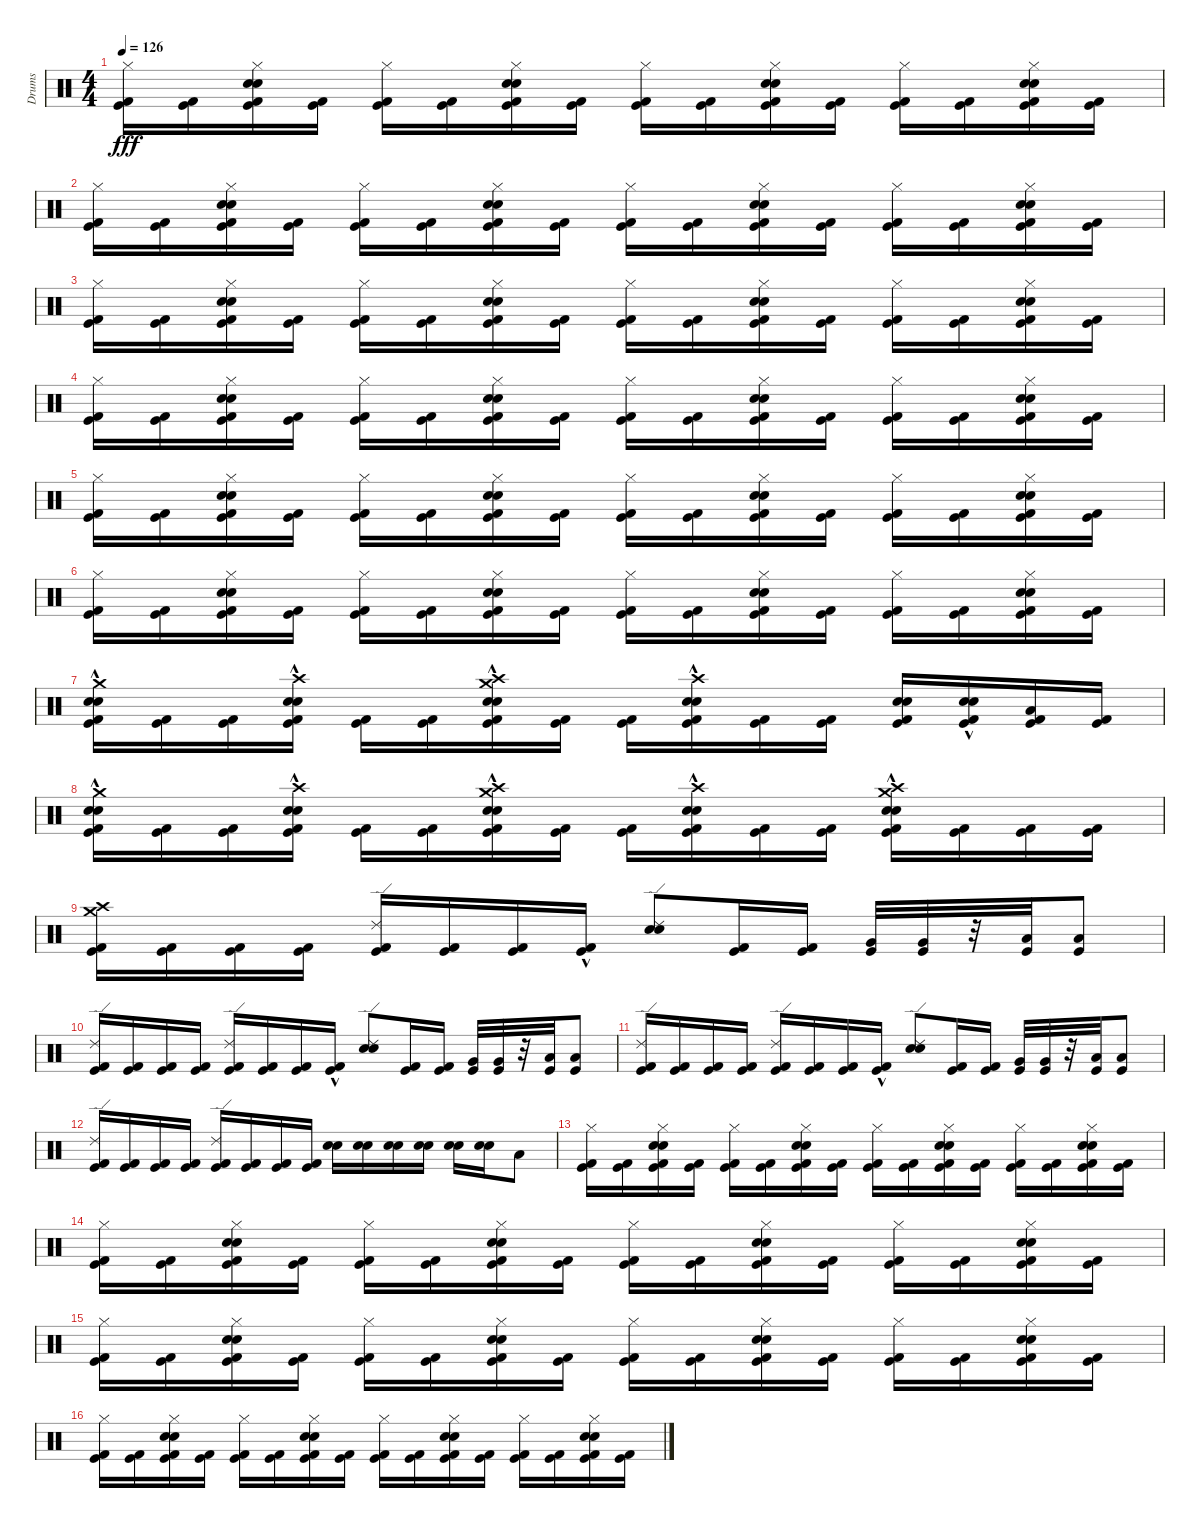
\track ("Drums" "Drums") {instrument percussion}
\staff {score}
\articulation defaults
\ts (4 4)
\tempo 126
\clef neutral
\ks c
("Hi-Hat (closed)" "Kick (hit) 2" "Kick (hit)").16{dy fff} ("Kick (hit) 2" "Kick (hit)").16 ("Hi-Hat (closed)" "Electric Snare (hit)" "Kick (hit) 2" "Snare (hit) 2" "Kick (hit)").16 ("Kick (hit) 2" "Kick (hit)").16 ("Hi-Hat (closed)" "Kick (hit) 2" "Kick (hit)").16 ("Kick (hit) 2" "Kick (hit)").16 ("Hi-Hat (closed)" "Electric Snare (hit)" "Snare (hit) 2" "Kick (hit) 2" "Kick (hit)").16 ("Kick (hit) 2" "Kick (hit)").16 ("Hi-Hat (closed)" "Kick (hit) 2" "Kick (hit)").16 ("Kick (hit) 2" "Kick (hit)").16 ("Hi-Hat (closed)" "Electric Snare (hit)" "Kick (hit) 2" "Snare (hit) 2" "Kick (hit)").16 ("Kick (hit) 2" "Kick (hit)").16 ("Hi-Hat (closed)" "Kick (hit) 2" "Kick (hit)").16 ("Kick (hit) 2" "Kick (hit)").16 ("Hi-Hat (closed)" "Electric Snare (hit)" "Snare (hit) 2" "Kick (hit) 2" "Kick (hit)").16 ("Kick (hit) 2" "Kick (hit)").16 |
("Hi-Hat (closed)" "Kick (hit) 2" "Kick (hit)").16 ("Kick (hit) 2" "Kick (hit)").16 ("Hi-Hat (closed)" "Electric Snare (hit)" "Kick (hit) 2" "Snare (hit) 2" "Kick (hit)").16 ("Kick (hit) 2" "Kick (hit)").16 ("Hi-Hat (closed)" "Kick (hit) 2" "Kick (hit)").16 ("Kick (hit) 2" "Kick (hit)").16 ("Hi-Hat (closed)" "Electric Snare (hit)" "Snare (hit) 2" "Kick (hit) 2" "Kick (hit)").16 ("Kick (hit) 2" "Kick (hit)").16 ("Hi-Hat (closed)" "Kick (hit) 2" "Kick (hit)").16 ("Kick (hit) 2" "Kick (hit)").16 ("Hi-Hat (closed)" "Electric Snare (hit)" "Kick (hit) 2" "Snare (hit) 2" "Kick (hit)").16 ("Kick (hit) 2" "Kick (hit)").16 ("Hi-Hat (closed)" "Kick (hit) 2" "Kick (hit)").16 ("Kick (hit) 2" "Kick (hit)").16 ("Hi-Hat (closed)" "Electric Snare (hit)" "Snare (hit) 2" "Kick (hit) 2" "Kick (hit)").16 ("Kick (hit) 2" "Kick (hit)").16 |
("Hi-Hat (closed)" "Kick (hit) 2" "Kick (hit)").16 ("Kick (hit) 2" "Kick (hit)").16 ("Hi-Hat (closed)" "Electric Snare (hit)" "Kick (hit) 2" "Snare (hit) 2" "Kick (hit)").16 ("Kick (hit) 2" "Kick (hit)").16 ("Hi-Hat (closed)" "Kick (hit) 2" "Kick (hit)").16 ("Kick (hit) 2" "Kick (hit)").16 ("Hi-Hat (closed)" "Electric Snare (hit)" "Snare (hit) 2" "Kick (hit) 2" "Kick (hit)").16 ("Kick (hit) 2" "Kick (hit)").16 ("Hi-Hat (closed)" "Kick (hit) 2" "Kick (hit)").16 ("Kick (hit) 2" "Kick (hit)").16 ("Hi-Hat (closed)" "Electric Snare (hit)" "Kick (hit) 2" "Snare (hit) 2" "Kick (hit)").16 ("Kick (hit) 2" "Kick (hit)").16 ("Hi-Hat (closed)" "Kick (hit) 2" "Kick (hit)").16 ("Kick (hit) 2" "Kick (hit)").16 ("Hi-Hat (closed)" "Electric Snare (hit)" "Snare (hit) 2" "Kick (hit) 2" "Kick (hit)").16 ("Kick (hit) 2" "Kick (hit)").16 |
("Hi-Hat (closed)" "Kick (hit) 2" "Kick (hit)").16 ("Kick (hit) 2" "Kick (hit)").16 ("Hi-Hat (closed)" "Electric Snare (hit)" "Kick (hit) 2" "Snare (hit) 2" "Kick (hit)").16 ("Kick (hit) 2" "Kick (hit)").16 ("Hi-Hat (closed)" "Kick (hit) 2" "Kick (hit)").16 ("Kick (hit) 2" "Kick (hit)").16 ("Hi-Hat (closed)" "Electric Snare (hit)" "Snare (hit) 2" "Kick (hit) 2" "Kick (hit)").16 ("Kick (hit) 2" "Kick (hit)").16 ("Hi-Hat (closed)" "Kick (hit) 2" "Kick (hit)").16 ("Kick (hit) 2" "Kick (hit)").16 ("Hi-Hat (closed)" "Electric Snare (hit)" "Kick (hit) 2" "Snare (hit) 2" "Kick (hit)").16 ("Kick (hit) 2" "Kick (hit)").16 ("Hi-Hat (closed)" "Kick (hit) 2" "Kick (hit)").16 ("Kick (hit) 2" "Kick (hit)").16 ("Hi-Hat (closed)" "Electric Snare (hit)" "Snare (hit) 2" "Kick (hit) 2" "Kick (hit)").16 ("Kick (hit) 2" "Kick (hit)").16 |
("Hi-Hat (closed)" "Kick (hit) 2" "Kick (hit)").16 ("Kick (hit) 2" "Kick (hit)").16 ("Hi-Hat (closed)" "Electric Snare (hit)" "Kick (hit) 2" "Snare (hit) 2" "Kick (hit)").16 ("Kick (hit) 2" "Kick (hit)").16 ("Hi-Hat (closed)" "Kick (hit) 2" "Kick (hit)").16 ("Kick (hit) 2" "Kick (hit)").16 ("Hi-Hat (closed)" "Electric Snare (hit)" "Snare (hit) 2" "Kick (hit) 2" "Kick (hit)").16 ("Kick (hit) 2" "Kick (hit)").16 ("Hi-Hat (closed)" "Kick (hit) 2" "Kick (hit)").16 ("Kick (hit) 2" "Kick (hit)").16 ("Hi-Hat (closed)" "Electric Snare (hit)" "Kick (hit) 2" "Snare (hit) 2" "Kick (hit)").16 ("Kick (hit) 2" "Kick (hit)").16 ("Hi-Hat (closed)" "Kick (hit) 2" "Kick (hit)").16 ("Kick (hit) 2" "Kick (hit)").16 ("Hi-Hat (closed)" "Electric Snare (hit)" "Snare (hit) 2" "Kick (hit) 2" "Kick (hit)").16 ("Kick (hit) 2" "Kick (hit)").16 |
("Hi-Hat (closed)" "Kick (hit) 2" "Kick (hit)").16 ("Kick (hit) 2" "Kick (hit)").16 ("Hi-Hat (closed)" "Electric Snare (hit)" "Kick (hit) 2" "Snare (hit) 2" "Kick (hit)").16 ("Kick (hit) 2" "Kick (hit)").16 ("Hi-Hat (closed)" "Kick (hit) 2" "Kick (hit)").16 ("Kick (hit) 2" "Kick (hit)").16 ("Hi-Hat (closed)" "Electric Snare (hit)" "Snare (hit) 2" "Kick (hit) 2" "Kick (hit)").16 ("Kick (hit) 2" "Kick (hit)").16 ("Hi-Hat (closed)" "Kick (hit) 2" "Kick (hit)").16 ("Kick (hit) 2" "Kick (hit)").16 ("Hi-Hat (closed)" "Electric Snare (hit)" "Kick (hit) 2" "Snare (hit) 2" "Kick (hit)").16 ("Kick (hit) 2" "Kick (hit)").16 ("Hi-Hat (closed)" "Kick (hit) 2" "Kick (hit)").16 ("Kick (hit) 2" "Kick (hit)").16 ("Hi-Hat (closed)" "Electric Snare (hit)" "Snare (hit) 2" "Kick (hit) 2" "Kick (hit)").16 ("Kick (hit) 2" "Kick (hit)").16 |
("Crash medium (hit)"{hac} "Electric Snare (hit)"{hac} "Snare (hit) 2"{hac} "Kick (hit) 2" "Kick (hit)").16 ("Kick (hit) 2" "Kick (hit)").16 ("Kick (hit) 2" "Kick (hit)").16 ("Crash high (hit)"{hac} "Electric Snare (hit)"{hac} "Snare (hit) 2"{hac} "Kick (hit) 2" "Kick (hit)").16 ("Kick (hit) 2" "Kick (hit)").16 ("Kick (hit) 2" "Kick (hit)").16 ("Crash high (hit)"{hac} "Crash medium (hit)" "Electric Snare (hit)"{hac} "Snare (hit) 2"{hac} "Kick (hit) 2" "Kick (hit)").16 ("Kick (hit) 2" "Kick (hit)").16 ("Kick (hit) 2" "Kick (hit)").16 ("Crash high (hit)" "Electric Snare (hit)"{hac} "Snare (hit) 2"{hac} "Kick (hit) 2" "Kick (hit)").16 ("Kick (hit) 2" "Kick (hit)").16 ("Kick (hit) 2" "Kick (hit)").16 ("Electric Snare (hit)" "Snare (hit) 2" "Kick (hit) 2" "Kick (hit)").16 ("Electric Snare (hit)"{hac} "Snare (hit) 2"{hac} "Kick (hit) 2" "Kick (hit)").16 ("Low Floor Tom (hit)" "Kick (hit) 2" "Kick (hit)").16 ("Kick (hit) 2" "Kick (hit)").16 |
("Crash medium (hit)"{hac} "Electric Snare (hit)"{hac} "Snare (hit) 2"{hac} "Kick (hit) 2" "Kick (hit)").16 ("Kick (hit) 2" "Kick (hit)").16 ("Kick (hit) 2" "Kick (hit)").16 ("Crash high (hit)"{hac} "Electric Snare (hit)"{hac} "Snare (hit) 2"{hac} "Kick (hit) 2" "Kick (hit)").16 ("Kick (hit) 2" "Kick (hit)").16 ("Kick (hit) 2" "Kick (hit)").16 ("Crash high (hit)"{hac} "Crash medium (hit)"{hac} "Electric Snare (hit)"{hac} "Snare (hit) 2"{hac} "Kick (hit) 2" "Kick (hit)").16 ("Kick (hit) 2" "Kick (hit)").16 ("Kick (hit) 2" "Kick (hit)").16 ("Crash high (hit)"{hac} "Electric Snare (hit)"{hac} "Snare (hit) 2"{hac} "Kick (hit) 2" "Kick (hit)").16 ("Kick (hit) 2" "Kick (hit)").16 ("Kick (hit) 2" "Kick (hit)").16 ("Crash high (hit)" "Crash medium (hit)" "Electric Snare (hit)"{hac} "Snare (hit) 2"{hac} "Kick (hit) 2" "Kick (hit)").16 ("Kick (hit) 2" "Kick (hit)").16 ("Kick (hit) 2" "Kick (hit)").16 ("Kick (hit) 2" "Kick (hit)").16 |
("Crash high (hit)" "Crash medium (hit)" "Kick (hit) 2" "Kick (hit)").16 ("Kick (hit) 2" "Kick (hit)").16 ("Kick (hit) 2" "Kick (hit)").16 ("Kick (hit) 2" "Kick (hit)").16 ("Ride (edge) 2" "Kick (hit) 2" "Kick (hit)").16 ("Kick (hit) 2" "Kick (hit)").16 ("Kick (hit) 2" "Kick (hit)").16 ("Kick (hit) 2"{hac} "Kick (hit)"{hac}).16 ("Electric Snare (hit)" "Snare (hit) 2" "Ride (edge) 2").8 ("Kick (hit) 2" "Kick (hit)").16 ("Kick (hit) 2" "Kick (hit)").16 ("Kick (hit)" "Very Low Tom (hit)").32 ("Kick (hit)" "Very Low Tom (hit)").32 r.32 ("Kick (hit)" "Low Floor Tom (hit)").32 ("Kick (hit)" "Low Floor Tom (hit)").8 |
("Ride (edge) 2" "Kick (hit) 2" "Kick (hit)").16 ("Kick (hit) 2" "Kick (hit)").16 ("Kick (hit) 2" "Kick (hit)").16 ("Kick (hit) 2" "Kick (hit)").16 ("Ride (edge) 2" "Kick (hit) 2" "Kick (hit)").16 ("Kick (hit) 2" "Kick (hit)").16 ("Kick (hit) 2" "Kick (hit)").16 ("Kick (hit) 2"{hac} "Kick (hit)"{hac}).16 ("Electric Snare (hit)" "Snare (hit) 2" "Ride (edge) 2").8 ("Kick (hit) 2" "Kick (hit)").16 ("Kick (hit) 2" "Kick (hit)").16 ("Kick (hit)" "Very Low Tom (hit)").32 ("Kick (hit)" "Very Low Tom (hit)").32 r.32 ("Kick (hit)" "Low Floor Tom (hit)").32 ("Kick (hit)" "Low Floor Tom (hit)").8 |
("Ride (edge) 2" "Kick (hit) 2" "Kick (hit)").16 ("Kick (hit) 2" "Kick (hit)").16 ("Kick (hit) 2" "Kick (hit)").16 ("Kick (hit) 2" "Kick (hit)").16 ("Ride (edge) 2" "Kick (hit) 2" "Kick (hit)").16 ("Kick (hit) 2" "Kick (hit)").16 ("Kick (hit) 2" "Kick (hit)").16 ("Kick (hit) 2"{hac} "Kick (hit)"{hac}).16 ("Electric Snare (hit)" "Snare (hit) 2" "Ride (edge) 2").8 ("Kick (hit) 2" "Kick (hit)").16 ("Kick (hit) 2" "Kick (hit)").16 ("Kick (hit)" "Very Low Tom (hit)").32 ("Kick (hit)" "Very Low Tom (hit)").32 r.32 ("Kick (hit)" "Low Floor Tom (hit)").32 ("Kick (hit)" "Low Floor Tom (hit)").8 |
("Ride (edge) 2" "Kick (hit)" "Kick (hit) 2").16 ("Kick (hit) 2" "Kick (hit)").16 ("Kick (hit) 2" "Kick (hit)").16 ("Kick (hit) 2" "Kick (hit)").16 ("Ride (edge) 2" "Kick (hit)" "Kick (hit) 2").16 ("Kick (hit) 2" "Kick (hit)").16 ("Kick (hit) 2" "Kick (hit)").16 ("Kick (hit) 2" "Kick (hit)").16 ("Electric Snare (hit)" "Snare (hit) 2").16 ("Electric Snare (hit)" "Snare (hit) 2").16 ("Electric Snare (hit)" "Snare (hit) 2").16 ("Electric Snare (hit)" "Snare (hit) 2").16 ("Electric Snare (hit)" "Snare (hit) 2").16 ("Electric Snare (hit)" "Snare (hit) 2").16 "Low Floor Tom (hit)".8 |
("Hi-Hat (closed)" "Kick (hit) 2" "Kick (hit)").16 ("Kick (hit) 2" "Kick (hit)").16 ("Hi-Hat (closed)" "Electric Snare (hit)" "Kick (hit) 2" "Snare (hit) 2" "Kick (hit)").16 ("Kick (hit) 2" "Kick (hit)").16 ("Hi-Hat (closed)" "Kick (hit) 2" "Kick (hit)").16 ("Kick (hit) 2" "Kick (hit)").16 ("Hi-Hat (closed)" "Electric Snare (hit)" "Snare (hit) 2" "Kick (hit) 2" "Kick (hit)").16 ("Kick (hit) 2" "Kick (hit)").16 ("Hi-Hat (closed)" "Kick (hit) 2" "Kick (hit)").16 ("Kick (hit) 2" "Kick (hit)").16 ("Hi-Hat (closed)" "Electric Snare (hit)" "Kick (hit) 2" "Snare (hit) 2" "Kick (hit)").16 ("Kick (hit) 2" "Kick (hit)").16 ("Hi-Hat (closed)" "Kick (hit) 2" "Kick (hit)").16 ("Kick (hit) 2" "Kick (hit)").16 ("Hi-Hat (closed)" "Electric Snare (hit)" "Snare (hit) 2" "Kick (hit) 2" "Kick (hit)").16 ("Kick (hit) 2" "Kick (hit)").16 |
("Hi-Hat (closed)" "Kick (hit) 2" "Kick (hit)").16 ("Kick (hit) 2" "Kick (hit)").16 ("Hi-Hat (closed)" "Electric Snare (hit)" "Kick (hit) 2" "Snare (hit) 2" "Kick (hit)").16 ("Kick (hit) 2" "Kick (hit)").16 ("Hi-Hat (closed)" "Kick (hit) 2" "Kick (hit)").16 ("Kick (hit) 2" "Kick (hit)").16 ("Hi-Hat (closed)" "Electric Snare (hit)" "Snare (hit) 2" "Kick (hit) 2" "Kick (hit)").16 ("Kick (hit) 2" "Kick (hit)").16 ("Hi-Hat (closed)" "Kick (hit) 2" "Kick (hit)").16 ("Kick (hit) 2" "Kick (hit)").16 ("Hi-Hat (closed)" "Electric Snare (hit)" "Kick (hit) 2" "Snare (hit) 2" "Kick (hit)").16 ("Kick (hit) 2" "Kick (hit)").16 ("Hi-Hat (closed)" "Kick (hit) 2" "Kick (hit)").16 ("Kick (hit) 2" "Kick (hit)").16 ("Hi-Hat (closed)" "Electric Snare (hit)" "Snare (hit) 2" "Kick (hit) 2" "Kick (hit)").16 ("Kick (hit) 2" "Kick (hit)").16 |
("Hi-Hat (closed)" "Kick (hit) 2" "Kick (hit)").16 ("Kick (hit) 2" "Kick (hit)").16 ("Hi-Hat (closed)" "Electric Snare (hit)" "Kick (hit) 2" "Snare (hit) 2" "Kick (hit)").16 ("Kick (hit) 2" "Kick (hit)").16 ("Hi-Hat (closed)" "Kick (hit) 2" "Kick (hit)").16 ("Kick (hit) 2" "Kick (hit)").16 ("Hi-Hat (closed)" "Electric Snare (hit)" "Snare (hit) 2" "Kick (hit) 2" "Kick (hit)").16 ("Kick (hit) 2" "Kick (hit)").16 ("Hi-Hat (closed)" "Kick (hit) 2" "Kick (hit)").16 ("Kick (hit) 2" "Kick (hit)").16 ("Hi-Hat (closed)" "Electric Snare (hit)" "Kick (hit) 2" "Snare (hit) 2" "Kick (hit)").16 ("Kick (hit) 2" "Kick (hit)").16 ("Hi-Hat (closed)" "Kick (hit) 2" "Kick (hit)").16 ("Kick (hit) 2" "Kick (hit)").16 ("Hi-Hat (closed)" "Electric Snare (hit)" "Snare (hit) 2" "Kick (hit) 2" "Kick (hit)").16 ("Kick (hit) 2" "Kick (hit)").16 |
("Hi-Hat (closed)" "Kick (hit) 2" "Kick (hit)").16 ("Kick (hit) 2" "Kick (hit)").16 ("Hi-Hat (closed)" "Electric Snare (hit)" "Kick (hit) 2" "Snare (hit) 2" "Kick (hit)").16 ("Kick (hit) 2" "Kick (hit)").16 ("Hi-Hat (closed)" "Kick (hit) 2" "Kick (hit)").16 ("Kick (hit) 2" "Kick (hit)").16 ("Hi-Hat (closed)" "Electric Snare (hit)" "Snare (hit) 2" "Kick (hit) 2" "Kick (hit)").16 ("Kick (hit) 2" "Kick (hit)").16 ("Hi-Hat (closed)" "Kick (hit) 2" "Kick (hit)").16 ("Kick (hit) 2" "Kick (hit)").16 ("Hi-Hat (closed)" "Electric Snare (hit)" "Kick (hit) 2" "Snare (hit) 2" "Kick (hit)").16 ("Kick (hit) 2" "Kick (hit)").16 ("Hi-Hat (closed)" "Kick (hit) 2" "Kick (hit)").16 ("Kick (hit) 2" "Kick (hit)").16 ("Hi-Hat (closed)" "Electric Snare (hit)" "Snare (hit) 2" "Kick (hit) 2" "Kick (hit)").16 ("Kick (hit) 2" "Kick (hit)").16
